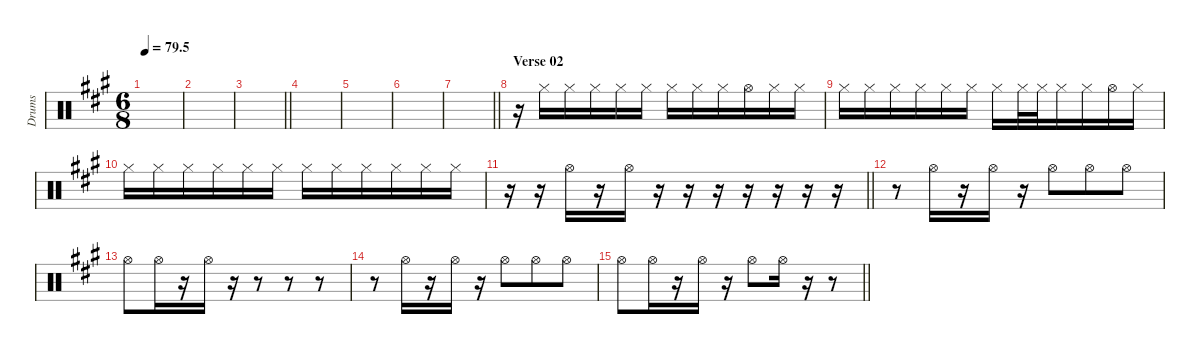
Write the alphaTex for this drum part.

\defaultSystemsLayout 4
\hideDynamics
\bracketExtendMode nobrackets
\otherSystemsTrackNameOrientation horizontal
\track ("Hihat" "Drums") {instrument percussion}
\staff {score}
\articulation defaults
\ts (6 8)
\tempo
79.5
\accidentals auto
\clef neutral
\ottava regular
\simile none
\scale
0.333333
\ks a
|
\scale
0.333333 |
\scale
0.333333
\barLineRight lightlight
|
\scale
0.333333 |
\scale
0.333333 |
\scale
0.333333 |
\scale
0.333333
\barLineRight lightlight
|
\section ("" "Verse 02")
\scale
0.333333 r.16 "Hi-Hat (closed)"{acc forcenatural}.16 "Hi-Hat (closed)"{acc forcenatural}.16 "Hi-Hat (closed)"{acc forcenatural}.16 "Hi-Hat (closed)"{acc forcenatural}.16 "Hi-Hat (closed)"{acc forcenatural}.16 "Hi-Hat (closed)"{acc forcenatural}.16 "Hi-Hat (closed)"{acc forcenatural}.16 "Hi-Hat (closed)"{acc forcenatural}.16 "Hi-Hat (open)"{acc forcenatural}.16 "Hi-Hat (closed)"{acc forcenatural}.16 "Hi-Hat (closed)"{acc forcenatural}.16 |
\scale
0.333333 "Hi-Hat (closed)"{acc forcenatural}.16 "Hi-Hat (closed)"{acc forcenatural}.16 "Hi-Hat (closed)"{acc forcenatural}.16 "Hi-Hat (closed)"{acc forcenatural}.16 "Hi-Hat (closed)"{acc forcenatural}.16 "Hi-Hat (closed)"{acc forcenatural}.16 "Hi-Hat (closed)"{acc forcenatural}.16 "Hi-Hat (closed)"{acc forcenatural}.32 "Hi-Hat (closed)"{acc forcenatural}.32 "Hi-Hat (closed)"{acc forcenatural}.16 "Hi-Hat (closed)"{acc forcenatural}.16 "Hi-Hat (open)"{acc forcenatural}.16 "Hi-Hat (closed)"{acc forcenatural}.16 |
\scale
0.333333 "Hi-Hat (closed)"{acc forcenatural}.16 "Hi-Hat (closed)"{acc forcenatural}.16 "Hi-Hat (closed)"{acc forcenatural}.16 "Hi-Hat (closed)"{acc forcenatural}.16 "Hi-Hat (closed)"{acc forcenatural}.16 "Hi-Hat (closed)"{acc forcenatural}.16 "Hi-Hat (closed)"{acc forcenatural}.16 "Hi-Hat (closed)"{acc forcenatural}.16 "Hi-Hat (closed)"{acc forcenatural}.16 "Hi-Hat (closed)"{acc forcenatural}.16 "Hi-Hat (closed)"{acc forcenatural}.16 "Hi-Hat (closed)"{acc forcenatural}.16 |
\scale
0.333333
\barLineRight lightlight
r.16 r.16 "Hi-Hat (open)"{acc forcenatural}.16 r.16 "Hi-Hat (open)"{acc forcenatural}.16 r.16 r.16 r.16 r.16 r.16 r.16 r.16 |
\scale
0.333333 r.8 "Hi-Hat (open)"{acc forcenatural}.16 r.16 "Hi-Hat (open)"{acc forcenatural}.16 r.16 "Hi-Hat (open)"{acc forcenatural}.8 "Hi-Hat (open)"{acc forcenatural}.8 "Hi-Hat (open)"{acc forcenatural}.8 |
\scale
0.333333 "Hi-Hat (open)"{acc forcenatural}.8 "Hi-Hat (open)"{acc forcenatural}.16 r.16 "Hi-Hat (open)"{acc forcenatural}.16 r.16 r.8 r.8 r.8 |
\scale
0.333333 r.8 "Hi-Hat (open)"{acc forcenatural}.16 r.16 "Hi-Hat (open)"{acc forcenatural}.16 r.16 "Hi-Hat (open)"{acc forcenatural}.8 "Hi-Hat (open)"{acc forcenatural}.8 "Hi-Hat (open)"{acc forcenatural}.8 |
\scale
0.333333
\barLineRight lightlight "Hi-Hat (open)"{acc forcenatural}.8 "Hi-Hat (open)"{acc forcenatural}.16
r.16 "Hi-Hat (open)"{acc forcenatural}.16 r.16 "Hi-Hat (open)"{acc forcenatural}.8 "Hi-Hat (open)"{acc forcenatural}.16 r.16 r.8 |
\scale
0.333333
